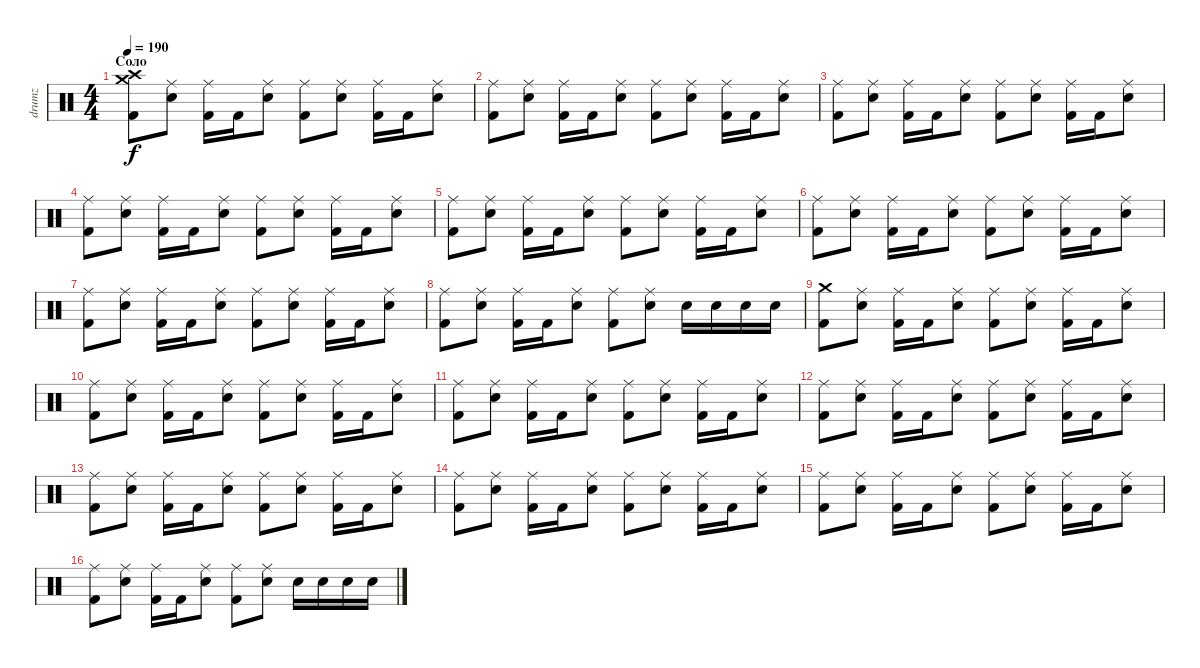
\track ("drumz" "drumz") {instrument percussion}
\staff {score}
\articulation defaults
\ts (4 4)
\section ("" "Соло")
\tempo 190
\clef neutral
\ks c
("Crash medium (hit)" "Crash high (hit)" "Kick (hit) 2").8{dy f} ("Ride (middle)" "Electric Snare (hit)").8 ("Ride (middle)" "Kick (hit) 2").16 "Kick (hit) 2".16 ("Ride (middle)" "Electric Snare (hit)").8 ("Ride (middle)" "Kick (hit) 2").8 ("Ride (middle)" "Electric Snare (hit)").8 ("Ride (middle)" "Kick (hit) 2").16 "Kick (hit) 2".16 ("Ride (middle)" "Electric Snare (hit)").8 |
("Ride (middle)" "Kick (hit) 2").8 ("Ride (middle)" "Electric Snare (hit)").8 ("Ride (middle)" "Kick (hit) 2").16 "Kick (hit) 2".16 ("Ride (middle)" "Electric Snare (hit)").8 ("Ride (middle)" "Kick (hit) 2").8 ("Ride (middle)" "Electric Snare (hit)").8 ("Ride (middle)" "Kick (hit) 2").16 "Kick (hit) 2".16 ("Ride (middle)" "Electric Snare (hit)").8 |
("Ride (middle)" "Kick (hit) 2").8 ("Ride (middle)" "Electric Snare (hit)").8 ("Ride (middle)" "Kick (hit) 2").16 "Kick (hit) 2".16 ("Ride (middle)" "Electric Snare (hit)").8 ("Ride (middle)" "Kick (hit) 2").8 ("Ride (middle)" "Electric Snare (hit)").8 ("Ride (middle)" "Kick (hit) 2").16 "Kick (hit) 2".16 ("Ride (middle)" "Electric Snare (hit)").8 |
("Ride (middle)" "Kick (hit) 2").8 ("Ride (middle)" "Electric Snare (hit)").8 ("Ride (middle)" "Kick (hit) 2").16 "Kick (hit) 2".16 ("Ride (middle)" "Electric Snare (hit)").8 ("Ride (middle)" "Kick (hit) 2").8 ("Ride (middle)" "Electric Snare (hit)").8 ("Ride (middle)" "Kick (hit) 2").16 "Kick (hit) 2".16 ("Ride (middle)" "Electric Snare (hit)").8 |
("Ride (middle)" "Kick (hit) 2").8 ("Ride (middle)" "Electric Snare (hit)").8 ("Ride (middle)" "Kick (hit) 2").16 "Kick (hit) 2".16 ("Ride (middle)" "Electric Snare (hit)").8 ("Ride (middle)" "Kick (hit) 2").8 ("Ride (middle)" "Electric Snare (hit)").8 ("Ride (middle)" "Kick (hit) 2").16 "Kick (hit) 2".16 ("Ride (middle)" "Electric Snare (hit)").8 |
("Ride (middle)" "Kick (hit) 2").8 ("Ride (middle)" "Electric Snare (hit)").8 ("Ride (middle)" "Kick (hit) 2").16 "Kick (hit) 2".16 ("Ride (middle)" "Electric Snare (hit)").8 ("Ride (middle)" "Kick (hit) 2").8 ("Ride (middle)" "Electric Snare (hit)").8 ("Ride (middle)" "Kick (hit) 2").16 "Kick (hit) 2".16 ("Ride (middle)" "Electric Snare (hit)").8 |
("Ride (middle)" "Kick (hit) 2").8 ("Ride (middle)" "Electric Snare (hit)").8 ("Ride (middle)" "Kick (hit) 2").16 "Kick (hit) 2".16 ("Ride (middle)" "Electric Snare (hit)").8 ("Ride (middle)" "Kick (hit) 2").8 ("Ride (middle)" "Electric Snare (hit)").8 ("Ride (middle)" "Kick (hit) 2").16 "Kick (hit) 2".16 ("Ride (middle)" "Electric Snare (hit)").8 |
("Ride (middle)" "Kick (hit) 2").8 ("Ride (middle)" "Electric Snare (hit)").8 ("Ride (middle)" "Kick (hit) 2").16 "Kick (hit) 2".16 ("Ride (middle)" "Electric Snare (hit)").8 ("Ride (middle)" "Kick (hit) 2").8 ("Ride (middle)" "Electric Snare (hit)").8 "Electric Snare (hit)".16 "Electric Snare (hit)".16 "Electric Snare (hit)".16 "Electric Snare (hit)".16 |
("Crash medium (hit)" "Kick (hit) 2").8 ("Ride (middle)" "Electric Snare (hit)").8 ("Ride (middle)" "Kick (hit) 2").16 "Kick (hit) 2".16 ("Ride (middle)" "Electric Snare (hit)").8 ("Ride (middle)" "Kick (hit) 2").8 ("Ride (middle)" "Electric Snare (hit)").8 ("Ride (middle)" "Kick (hit) 2").16 "Kick (hit) 2".16 ("Ride (middle)" "Electric Snare (hit)").8 |
("Ride (middle)" "Kick (hit) 2").8 ("Ride (middle)" "Electric Snare (hit)").8 ("Ride (middle)" "Kick (hit) 2").16 "Kick (hit) 2".16 ("Ride (middle)" "Electric Snare (hit)").8 ("Ride (middle)" "Kick (hit) 2").8 ("Ride (middle)" "Electric Snare (hit)").8 ("Ride (middle)" "Kick (hit) 2").16 "Kick (hit) 2".16 ("Ride (middle)" "Electric Snare (hit)").8 |
("Ride (middle)" "Kick (hit) 2").8 ("Ride (middle)" "Electric Snare (hit)").8 ("Ride (middle)" "Kick (hit) 2").16 "Kick (hit) 2".16 ("Ride (middle)" "Electric Snare (hit)").8 ("Ride (middle)" "Kick (hit) 2").8 ("Ride (middle)" "Electric Snare (hit)").8 ("Ride (middle)" "Kick (hit) 2").16 "Kick (hit) 2".16 ("Ride (middle)" "Electric Snare (hit)").8 |
("Ride (middle)" "Kick (hit) 2").8 ("Ride (middle)" "Electric Snare (hit)").8 ("Ride (middle)" "Kick (hit) 2").16 "Kick (hit) 2".16 ("Ride (middle)" "Electric Snare (hit)").8 ("Ride (middle)" "Kick (hit) 2").8 ("Ride (middle)" "Electric Snare (hit)").8 ("Ride (middle)" "Kick (hit) 2").16 "Kick (hit) 2".16 ("Ride (middle)" "Electric Snare (hit)").8 |
("Ride (middle)" "Kick (hit) 2").8 ("Ride (middle)" "Electric Snare (hit)").8 ("Ride (middle)" "Kick (hit) 2").16 "Kick (hit) 2".16 ("Ride (middle)" "Electric Snare (hit)").8 ("Ride (middle)" "Kick (hit) 2").8 ("Ride (middle)" "Electric Snare (hit)").8 ("Ride (middle)" "Kick (hit) 2").16 "Kick (hit) 2".16 ("Ride (middle)" "Electric Snare (hit)").8 |
("Ride (middle)" "Kick (hit) 2").8 ("Ride (middle)" "Electric Snare (hit)").8 ("Ride (middle)" "Kick (hit) 2").16 "Kick (hit) 2".16 ("Ride (middle)" "Electric Snare (hit)").8 ("Ride (middle)" "Kick (hit) 2").8 ("Ride (middle)" "Electric Snare (hit)").8 ("Ride (middle)" "Kick (hit) 2").16 "Kick (hit) 2".16 ("Ride (middle)" "Electric Snare (hit)").8 |
("Ride (middle)" "Kick (hit) 2").8 ("Ride (middle)" "Electric Snare (hit)").8 ("Ride (middle)" "Kick (hit) 2").16 "Kick (hit) 2".16 ("Ride (middle)" "Electric Snare (hit)").8 ("Ride (middle)" "Kick (hit) 2").8 ("Ride (middle)" "Electric Snare (hit)").8 ("Ride (middle)" "Kick (hit) 2").16 "Kick (hit) 2".16 ("Ride (middle)" "Electric Snare (hit)").8 |
("Ride (middle)" "Kick (hit) 2").8 ("Ride (middle)" "Electric Snare (hit)").8 ("Ride (middle)" "Kick (hit) 2").16 "Kick (hit) 2".16 ("Ride (middle)" "Electric Snare (hit)").8 ("Ride (middle)" "Kick (hit) 2").8 ("Ride (middle)" "Electric Snare (hit)").8 "Electric Snare (hit)".16 "Electric Snare (hit)".16 "Electric Snare (hit)".16 "Electric Snare (hit)".16
